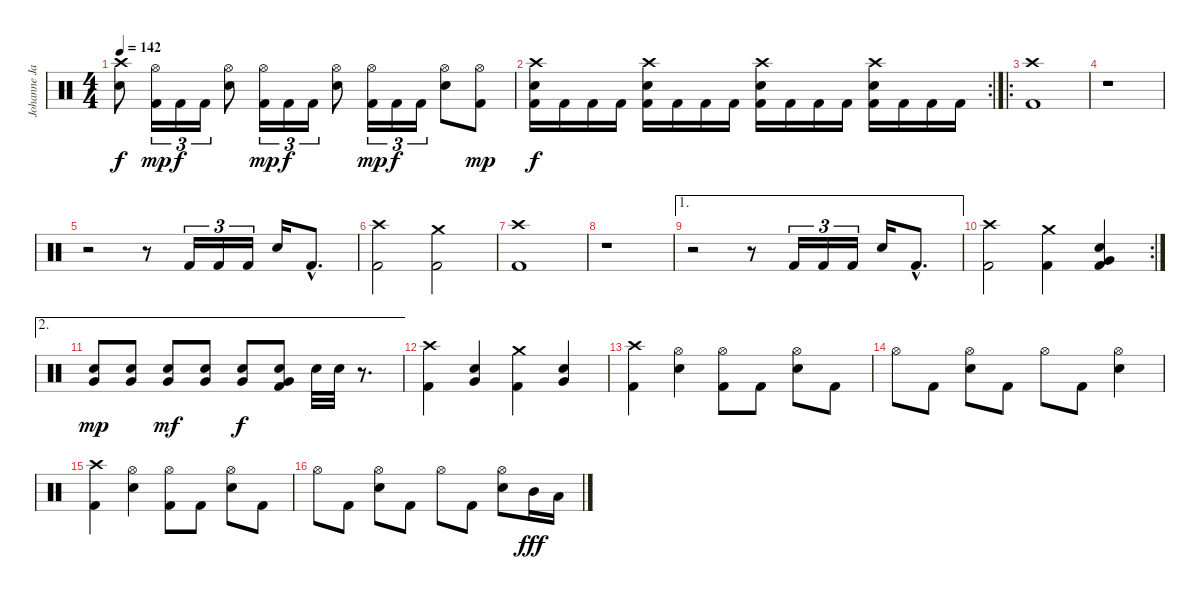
\track ("Johanne James" "Johanne Ja") {instrument percussion}
\staff {score}
\articulation defaults
\ts (4 4)
\tempo 142
\clef neutral
\ks c
("Crash high (hit)" "Snare (hit) 2").8{dy f} ("Hi-Hat (open)" "Kick (hit) 2").16{tu (3 2) dy mp} "Kick (hit) 2".16{tu (3 2) dy f} "Kick (hit) 2".16{tu (3 2)} ("Hi-Hat (open)" "Snare (hit) 2").8 ("Hi-Hat (open)" "Kick (hit) 2").16{tu (3 2) dy mp} "Kick (hit) 2".16{tu (3 2) dy f} "Kick (hit) 2".16{tu (3 2)} ("Hi-Hat (open)" "Snare (hit) 2").8 ("Hi-Hat (open)" "Kick (hit) 2").16{tu (3 2) dy mp} "Kick (hit) 2".16{tu (3 2) dy f} "Kick (hit) 2".16{tu (3 2)} ("Hi-Hat (open)" "Snare (hit) 2").8 ("Hi-Hat (open)" "Kick (hit) 2").8{dy mp} |
\rc 2
("Crash high (hit)" "Snare (hit) 2" "Kick (hit) 2").16{dy f} "Kick (hit) 2".16 "Kick (hit) 2".16 "Kick (hit) 2".16 ("Crash high (hit)" "Snare (hit) 2" "Kick (hit) 2").16 "Kick (hit) 2".16 "Kick (hit) 2".16 "Kick (hit) 2".16 ("Crash high (hit)" "Snare (hit) 2" "Kick (hit) 2").16 "Kick (hit) 2".16 "Kick (hit) 2".16 "Kick (hit) 2".16 ("Crash high (hit)" "Snare (hit) 2" "Kick (hit) 2").16 "Kick (hit) 2".16 "Kick (hit) 2".16 "Kick (hit) 2".16 |
\ro
("Crash high (hit)" "Kick (hit) 2").1 |
r.1 |
r.2 r.8 "Kick (hit) 2".16{tu (3 2)} "Kick (hit) 2".16{tu (3 2)} "Kick (hit) 2".16{tu (3 2)} "Snare (hit) 2".16 "Kick (hit) 2"{hac}.8{d} |
("Crash high (hit)" "Kick (hit) 2").2 ("Crash medium (hit)" "Kick (hit) 2").2 |
("Crash high (hit)" "Kick (hit) 2").1 |
r.1 |
\ae 1
r.2 r.8 "Kick (hit) 2".16{tu (3 2)} "Kick (hit) 2".16{tu (3 2)} "Kick (hit) 2".16{tu (3 2)} "Snare (hit) 2".16 "Kick (hit) 2"{hac}.8{d} |
\rc 2
("Crash high (hit)" "Kick (hit) 2").2 ("Crash medium (hit)" "Kick (hit) 2").4 ("Very Low Tom (hit)" "Snare (hit) 2" "Kick (hit) 2").4 |
\ae 2
("Very Low Tom (hit)" "Snare (hit) 2").8{dy mp} ("Very Low Tom (hit)" "Snare (hit) 2").8 ("Very Low Tom (hit)" "Snare (hit) 2").8{dy mf} ("Very Low Tom (hit)" "Snare (hit) 2").8 ("Very Low Tom (hit)" "Snare (hit) 2").8{dy f} ("Very Low Tom (hit)" "Snare (hit) 2" "Kick (hit) 2").8 "Snare (hit) 2".32 "Snare (hit) 2".32 r.8{d} |
("Crash high (hit)" "Kick (hit) 2").4 ("Very Low Tom (hit)" "Snare (hit) 2").4 ("Crash medium (hit)" "Kick (hit) 2").4 ("Very Low Tom (hit)" "Snare (hit) 2").4 |
("Crash high (hit)" "Kick (hit) 2").4 ("Hi-Hat (open)" "Snare (hit) 2").4 ("Hi-Hat (open)" "Kick (hit) 2").8 "Kick (hit) 2".8 ("Hi-Hat (open)" "Snare (hit) 2").8 "Kick (hit) 2".8 |
"Hi-Hat (open)".8 "Kick (hit) 2".8 ("Hi-Hat (open)" "Snare (hit) 2").8 "Kick (hit) 2".8 "Hi-Hat (open)".8 "Kick (hit) 2".8 ("Hi-Hat (open)" "Snare (hit) 2").4 |
("Crash high (hit)" "Kick (hit) 2").4 ("Hi-Hat (open)" "Snare (hit) 2").4 ("Hi-Hat (open)" "Kick (hit) 2").8 "Kick (hit) 2".8 ("Hi-Hat (open)" "Snare (hit) 2").8 "Kick (hit) 2".8 |
"Hi-Hat (open)".8 "Kick (hit) 2".8 ("Hi-Hat (open)" "Snare (hit) 2").8 "Kick (hit) 2".8 "Hi-Hat (open)".8 "Kick (hit) 2".8 ("Hi-Hat (open)" "Snare (hit) 2").8 "Mid Tom (hit)".16{dy fff} "Low Tom (hit)".16
